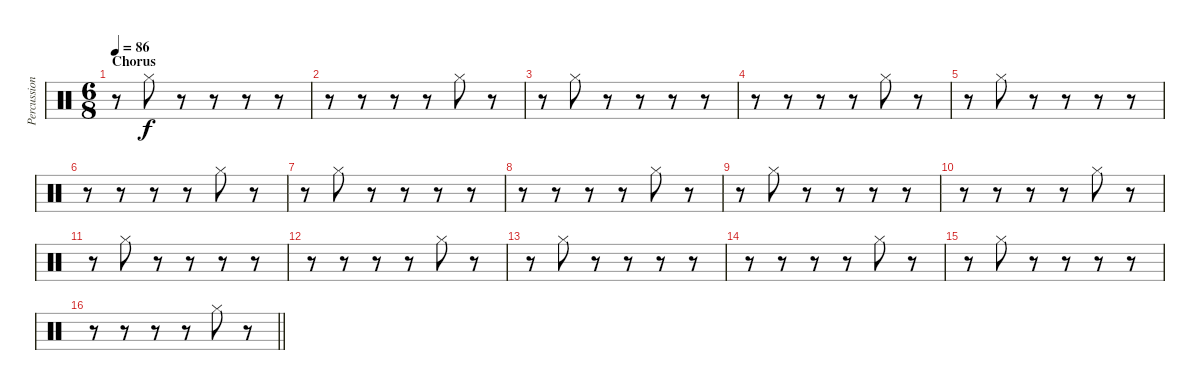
\track ("Percussion" "Percussion") {instrument percussion}
\staff {score}
\articulation defaults
\ts (6 8)
\section ("" "Chorus")
\tempo 86
\clef neutral
\ks c
r.8{dy f} "Hi-Hat (closed)".8 r.8 r.8 r.8 r.8 |
r.8 r.8 r.8 r.8 "Hi-Hat (closed)".8 r.8 |
r.8 "Hi-Hat (closed)".8 r.8 r.8 r.8 r.8 |
r.8 r.8 r.8 r.8 "Hi-Hat (closed)".8 r.8 |
r.8 "Hi-Hat (closed)".8 r.8 r.8 r.8 r.8 |
r.8 r.8 r.8 r.8 "Hi-Hat (closed)".8 r.8 |
r.8 "Hi-Hat (closed)".8 r.8 r.8 r.8 r.8 |
r.8 r.8 r.8 r.8 "Hi-Hat (closed)".8 r.8 |
r.8 "Hi-Hat (closed)".8 r.8 r.8 r.8 r.8 |
r.8 r.8 r.8 r.8 "Hi-Hat (closed)".8 r.8 |
r.8 "Hi-Hat (closed)".8 r.8 r.8 r.8 r.8 |
r.8 r.8 r.8 r.8 "Hi-Hat (closed)".8 r.8 |
r.8 "Hi-Hat (closed)".8 r.8 r.8 r.8 r.8 |
r.8 r.8 r.8 r.8 "Hi-Hat (closed)".8 r.8 |
r.8 "Hi-Hat (closed)".8 r.8 r.8 r.8 r.8 |
\barLineRight lightlight
r.8 r.8 r.8 r.8 "Hi-Hat (closed)".8 r.8
